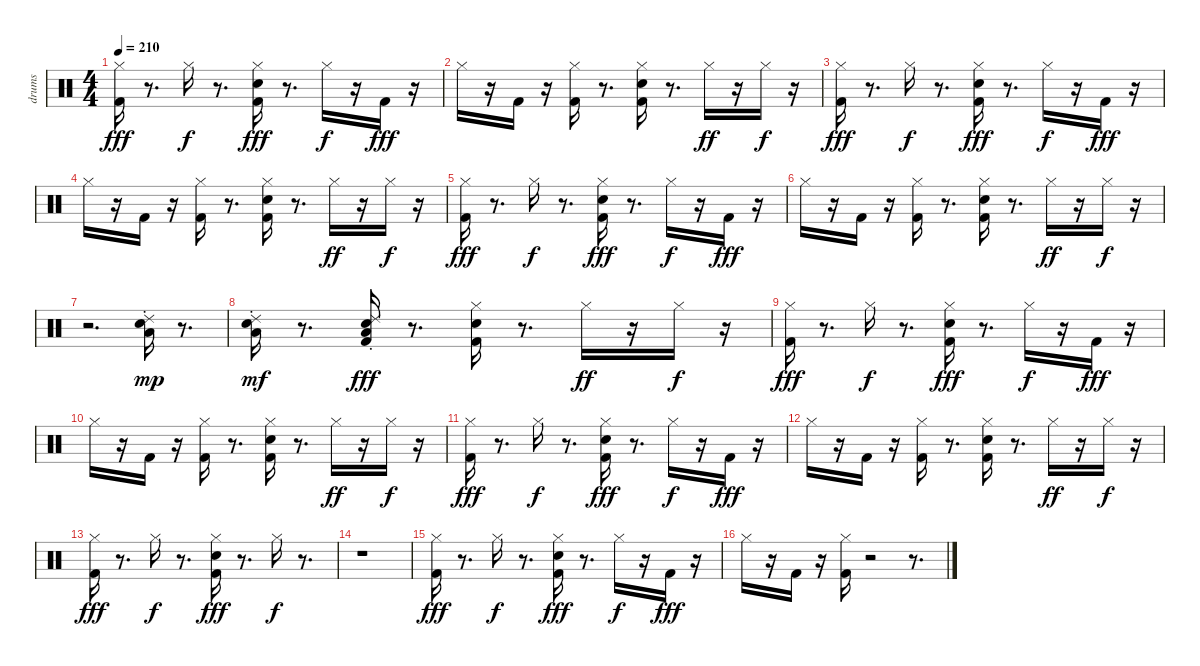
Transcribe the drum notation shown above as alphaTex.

\track ("drums" "drums") {instrument percussion}
\staff {score}
\articulation defaults
\ts (4 4)
\tempo 210
\clef neutral
\ks c
("Hi-Hat (closed)" "Kick (hit) 2").16{dy fff} r.8{d} "Hi-Hat (closed)".16{dy f} r.8{d} ("Electric Snare (hit)" "Hi-Hat (closed)" "Kick (hit) 2").16{dy fff} r.8{d} "Hi-Hat (closed)".16{dy f} r.16 "Kick (hit) 2".16{dy fff} r.16 |
"Hi-Hat (closed)".16 r.16 "Kick (hit) 2".16 r.16 ("Hi-Hat (closed)" "Kick (hit) 2").16 r.8{d} ("Electric Snare (hit)" "Hi-Hat (closed)" "Kick (hit) 2").16 r.8{d} "Hi-Hat (closed)".16{dy ff} r.16 "Hi-Hat (closed)".16{dy f} r.16 |
("Hi-Hat (closed)" "Kick (hit) 2").16{dy fff} r.8{d} "Hi-Hat (closed)".16{dy f} r.8{d} ("Electric Snare (hit)" "Hi-Hat (closed)" "Kick (hit) 2").16{dy fff} r.8{d} "Hi-Hat (closed)".16{dy f} r.16 "Kick (hit) 2".16{dy fff} r.16 |
"Hi-Hat (closed)".16 r.16 "Kick (hit) 2".16 r.16 ("Hi-Hat (closed)" "Kick (hit) 2").16 r.8{d} ("Electric Snare (hit)" "Hi-Hat (closed)" "Kick (hit) 2").16 r.8{d} "Hi-Hat (closed)".16{dy ff} r.16 "Hi-Hat (closed)".16{dy f} r.16 |
("Hi-Hat (closed)" "Kick (hit) 2").16{dy fff} r.8{d} "Hi-Hat (closed)".16{dy f} r.8{d} ("Electric Snare (hit)" "Hi-Hat (closed)" "Kick (hit) 2").16{dy fff} r.8{d} "Hi-Hat (closed)".16{dy f} r.16 "Kick (hit) 2".16{dy fff} r.16 |
"Hi-Hat (closed)".16 r.16 "Kick (hit) 2".16 r.16 ("Hi-Hat (closed)" "Kick (hit) 2").16 r.8{d} ("Electric Snare (hit)" "Hi-Hat (closed)" "Kick (hit) 2").16 r.8{d} "Hi-Hat (closed)".16{dy ff} r.16 "Hi-Hat (closed)".16{dy f} r.16 |
r.2{d} ("Low Floor Tom (hit)" "Snare (hit) 2" "Ride (choke) 2").16{dy mp} r.8{d} |
("Low Floor Tom (hit)" "Snare (hit) 2" "Ride (choke) 2").16{dy mf} r.8{d} ("Kick (hit) 2" "Low Floor Tom (hit)" "Snare (hit) 2" "Ride (choke) 2").16{dy fff} r.8{d} ("Hi-Hat (closed)" "Electric Snare (hit)" "Kick (hit) 2").16 r.8{d} "Hi-Hat (closed)".16{dy ff} r.16 "Hi-Hat (closed)".16{dy f} r.16 |
("Hi-Hat (closed)" "Kick (hit) 2").16{dy fff} r.8{d} "Hi-Hat (closed)".16{dy f} r.8{d} ("Electric Snare (hit)" "Hi-Hat (closed)" "Kick (hit) 2").16{dy fff} r.8{d} "Hi-Hat (closed)".16{dy f} r.16 "Kick (hit) 2".16{dy fff} r.16 |
"Hi-Hat (closed)".16 r.16 "Kick (hit) 2".16 r.16 ("Hi-Hat (closed)" "Kick (hit) 2").16 r.8{d} ("Electric Snare (hit)" "Hi-Hat (closed)" "Kick (hit) 2").16 r.8{d} "Hi-Hat (closed)".16{dy ff} r.16 "Hi-Hat (closed)".16{dy f} r.16 |
("Hi-Hat (closed)" "Kick (hit) 2").16{dy fff} r.8{d} "Hi-Hat (closed)".16{dy f} r.8{d} ("Electric Snare (hit)" "Hi-Hat (closed)" "Kick (hit) 2").16{dy fff} r.8{d} "Hi-Hat (closed)".16{dy f} r.16 "Kick (hit) 2".16{dy fff} r.16 |
"Hi-Hat (closed)".16 r.16 "Kick (hit) 2".16 r.16 ("Hi-Hat (closed)" "Kick (hit) 2").16 r.8{d} ("Electric Snare (hit)" "Hi-Hat (closed)" "Kick (hit) 2").16 r.8{d} "Hi-Hat (closed)".16{dy ff} r.16 "Hi-Hat (closed)".16{dy f} r.16 |
("Hi-Hat (closed)" "Kick (hit) 2").16{dy fff} r.8{d} "Hi-Hat (closed)".16{dy f} r.8{d} ("Electric Snare (hit)" "Hi-Hat (closed)" "Kick (hit) 2").16{dy fff} r.8{d} "Hi-Hat (closed)".16{dy f} r.8{d} |
r.1 |
("Hi-Hat (closed)" "Kick (hit) 2").16{dy fff} r.8{d} "Hi-Hat (closed)".16{dy f} r.8{d} ("Electric Snare (hit)" "Hi-Hat (closed)" "Kick (hit) 2").16{dy fff} r.8{d} "Hi-Hat (closed)".16{dy f} r.16 "Kick (hit) 2".16{dy fff} r.16 |
"Hi-Hat (closed)".16 r.16 "Kick (hit) 2".16 r.16 ("Hi-Hat (closed)" "Kick (hit) 2").16 r.2 r.8{d}
